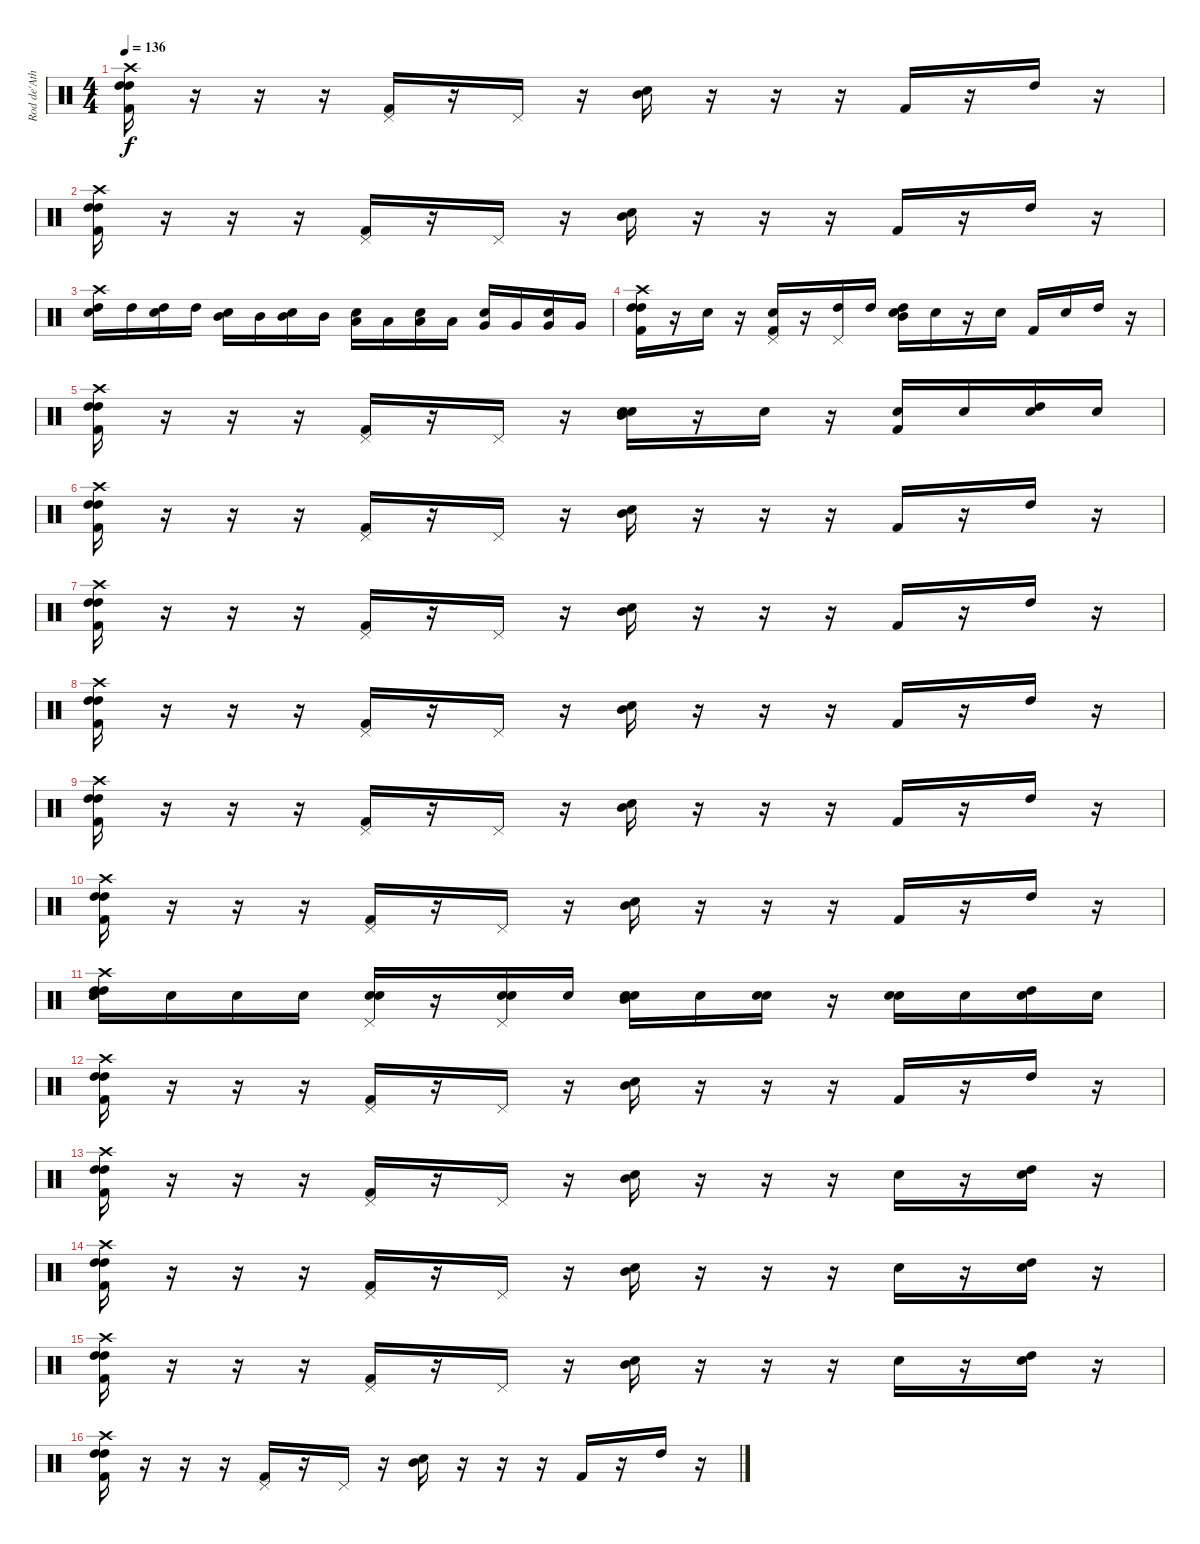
\track ("Rod de'Ath" "Rod de'Ath") {instrument percussion}
\staff {score}
\articulation defaults
\ts (4 4)
\tempo 136
\clef neutral
\ks c
("Crash high (hit)" "High Tom (hit)" "High Tom (hit)" "Kick (hit) 2").16{dy f} r.16 r.16 r.16 ("Pedal Hi-Hat (hit)" "Kick (hit) 2").16 r.16 "Pedal Hi-Hat (hit)".16 r.16 ("Electric Snare (hit)" "Mid Tom (hit)").16 r.16 r.16 r.16 "Kick (hit) 2".16 r.16 "High Tom (hit)".16 r.16 |
("Crash high (hit)" "High Tom (hit)" "High Tom (hit)" "Kick (hit) 2").16 r.16 r.16 r.16 ("Pedal Hi-Hat (hit)" "Kick (hit) 2").16 r.16 "Pedal Hi-Hat (hit)".16 r.16 ("Electric Snare (hit)" "Mid Tom (hit)").16 r.16 r.16 r.16 "Kick (hit) 2".16 r.16 "High Tom (hit)".16 r.16 |
("Crash high (hit)" "High Tom (hit)" "Electric Snare (hit)").16 "High Tom (hit)".16 ("High Tom (hit)" "Electric Snare (hit)").16 "High Tom (hit)".16 ("Mid Tom (hit)" "Electric Snare (hit)").16 "Mid Tom (hit)".16 ("Mid Tom (hit)" "Electric Snare (hit)").16 "Mid Tom (hit)".16 ("Low Tom (hit)" "Snare (hit) 2").16 "Low Tom (hit)".16 ("Low Tom (hit)" "Snare (hit) 2").16 "Low Tom (hit)".16 ("Very Low Tom (hit)" "Snare (hit) 2").16 "Very Low Tom (hit)".16 ("Very Low Tom (hit)" "Snare (hit) 2").16 "Very Low Tom (hit)".16 |
("Crash high (hit)" "High Tom (hit)" "High Tom (hit)" "Kick (hit) 2").16 r.16 "Electric Snare (hit)".16 r.16 ("Pedal Hi-Hat (hit)" "Snare (hit) 2" "Kick (hit) 2").16 r.16 ("Pedal Hi-Hat (hit)" "High Tom (hit)").16 "High Tom (hit)".16 ("Electric Snare (hit)" "Mid Tom (hit)" "High Tom (hit)").16 "Electric Snare (hit)".16 r.16 "Electric Snare (hit)".16 "Kick (hit) 2".16 "Electric Snare (hit)".16 "High Tom (hit)".16 r.16 |
("Crash high (hit)" "High Tom (hit)" "High Tom (hit)" "Kick (hit) 2").16 r.16 r.16 r.16 ("Pedal Hi-Hat (hit)" "Kick (hit) 2").16 r.16 "Pedal Hi-Hat (hit)".16 r.16 ("Electric Snare (hit)" "Mid Tom (hit)" "Electric Snare (hit)").16 r.16 "Electric Snare (hit)".16 r.16 ("Electric Snare (hit)" "Kick (hit) 2").16 "Electric Snare (hit)".16 ("High Tom (hit)" "Electric Snare (hit)").16 "Electric Snare (hit)".16 |
("Crash high (hit)" "High Tom (hit)" "High Tom (hit)" "Kick (hit) 2").16 r.16 r.16 r.16 ("Pedal Hi-Hat (hit)" "Kick (hit) 2").16 r.16 "Pedal Hi-Hat (hit)".16 r.16 ("Electric Snare (hit)" "Mid Tom (hit)").16 r.16 r.16 r.16 "Kick (hit) 2".16 r.16 "High Tom (hit)".16 r.16 |
("Crash high (hit)" "High Tom (hit)" "High Tom (hit)" "Kick (hit) 2").16 r.16 r.16 r.16 ("Pedal Hi-Hat (hit)" "Kick (hit) 2").16 r.16 "Pedal Hi-Hat (hit)".16 r.16 ("Electric Snare (hit)" "Mid Tom (hit)").16 r.16 r.16 r.16 "Kick (hit) 2".16 r.16 "High Tom (hit)".16 r.16 |
("Crash high (hit)" "High Tom (hit)" "High Tom (hit)" "Kick (hit) 2").16 r.16 r.16 r.16 ("Pedal Hi-Hat (hit)" "Kick (hit) 2").16 r.16 "Pedal Hi-Hat (hit)".16 r.16 ("Electric Snare (hit)" "Mid Tom (hit)").16 r.16 r.16 r.16 "Kick (hit) 2".16 r.16 "High Tom (hit)".16 r.16 |
("Crash high (hit)" "High Tom (hit)" "High Tom (hit)" "Kick (hit) 2").16 r.16 r.16 r.16 ("Pedal Hi-Hat (hit)" "Kick (hit) 2").16 r.16 "Pedal Hi-Hat (hit)".16 r.16 ("Electric Snare (hit)" "Mid Tom (hit)").16 r.16 r.16 r.16 "Kick (hit) 2".16 r.16 "High Tom (hit)".16 r.16 |
("Crash high (hit)" "High Tom (hit)" "High Tom (hit)" "Kick (hit) 2").16 r.16 r.16 r.16 ("Pedal Hi-Hat (hit)" "Kick (hit) 2").16 r.16 "Pedal Hi-Hat (hit)".16 r.16 ("Electric Snare (hit)" "Mid Tom (hit)").16 r.16 r.16 r.16 "Kick (hit) 2".16 r.16 "High Tom (hit)".16 r.16 |
("Crash high (hit)" "High Tom (hit)" "High Tom (hit)" "Snare (hit) 2" "Electric Snare (hit)").16 "Snare (hit) 2".16 "Electric Snare (hit)".16 "Snare (hit) 2".16 ("Pedal Hi-Hat (hit)" "Snare (hit) 2" "Electric Snare (hit)").16 r.16 ("Pedal Hi-Hat (hit)" "Snare (hit) 2" "Electric Snare (hit)").16 "Snare (hit) 2".16 ("Electric Snare (hit)" "Mid Tom (hit)" "Electric Snare (hit)").16 "Snare (hit) 2".16 ("Snare (hit) 2" "Electric Snare (hit)").16 r.16 ("Snare (hit) 2" "Electric Snare (hit)").16 "Snare (hit) 2".16 ("High Tom (hit)" "Electric Snare (hit)").16 "Snare (hit) 2".16 |
("Crash high (hit)" "High Tom (hit)" "High Tom (hit)" "Kick (hit) 2").16 r.16 r.16 r.16 ("Pedal Hi-Hat (hit)" "Kick (hit) 2").16 r.16 "Pedal Hi-Hat (hit)".16 r.16 ("Electric Snare (hit)" "Mid Tom (hit)").16 r.16 r.16 r.16 "Kick (hit) 2".16 r.16 "High Tom (hit)".16 r.16 |
("Crash high (hit)" "High Tom (hit)" "High Tom (hit)" "Kick (hit) 2").16 r.16 r.16 r.16 ("Pedal Hi-Hat (hit)" "Kick (hit) 2").16 r.16 "Pedal Hi-Hat (hit)".16 r.16 ("Electric Snare (hit)" "Mid Tom (hit)").16 r.16 r.16 r.16 "Electric Snare (hit)".16 r.16 ("High Tom (hit)" "Electric Snare (hit)").16 r.16 |
("Crash high (hit)" "High Tom (hit)" "High Tom (hit)" "Kick (hit) 2").16 r.16 r.16 r.16 ("Pedal Hi-Hat (hit)" "Kick (hit) 2").16 r.16 "Pedal Hi-Hat (hit)".16 r.16 ("Electric Snare (hit)" "Mid Tom (hit)").16 r.16 r.16 r.16 "Electric Snare (hit)".16 r.16 ("High Tom (hit)" "Electric Snare (hit)").16 r.16 |
("Crash high (hit)" "High Tom (hit)" "High Tom (hit)" "Kick (hit) 2").16 r.16 r.16 r.16 ("Pedal Hi-Hat (hit)" "Kick (hit) 2").16 r.16 "Pedal Hi-Hat (hit)".16 r.16 ("Electric Snare (hit)" "Mid Tom (hit)").16 r.16 r.16 r.16 "Electric Snare (hit)".16 r.16 ("High Tom (hit)" "Electric Snare (hit)").16 r.16 |
("Crash high (hit)" "High Tom (hit)" "High Tom (hit)" "Kick (hit) 2").16 r.16 r.16 r.16 ("Pedal Hi-Hat (hit)" "Kick (hit) 2").16 r.16 "Pedal Hi-Hat (hit)".16 r.16 ("Electric Snare (hit)" "Mid Tom (hit)").16 r.16 r.16 r.16 "Kick (hit) 2".16 r.16 "High Tom (hit)".16 r.16
